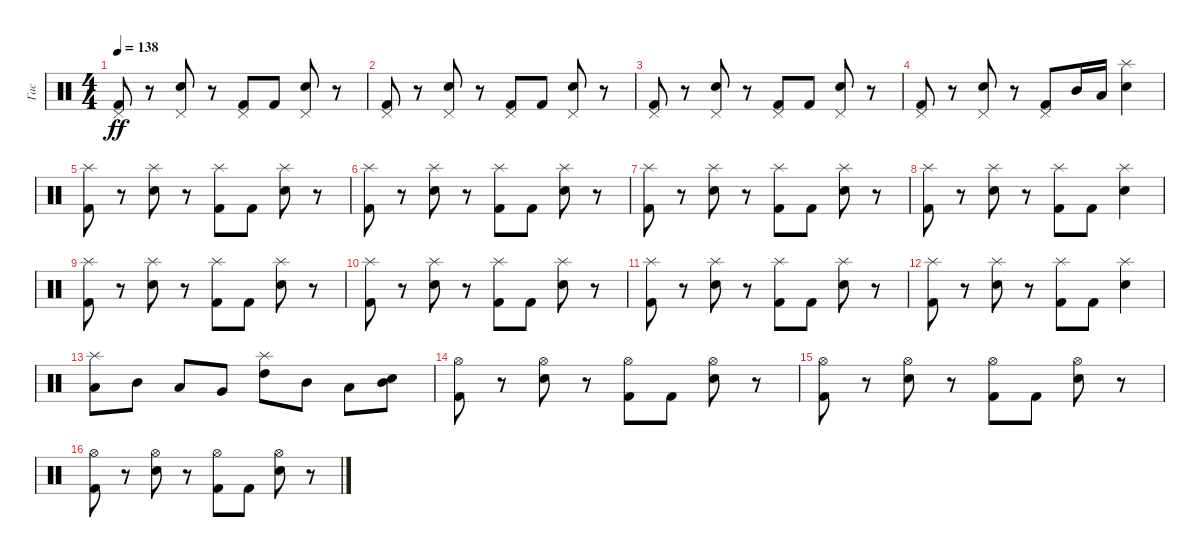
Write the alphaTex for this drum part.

\track ("Гас" "Гас") {instrument percussion}
\staff {score}
\articulation defaults
\ts (4 4)
\tempo 138
\clef neutral
\ks c
("Pedal Hi-Hat (hit)" "Kick (hit) 2").8{dy ff} r.8 ("Pedal Hi-Hat (hit)" "Electric Snare (hit)").8 r.8 ("Pedal Hi-Hat (hit)" "Kick (hit) 2").8 "Kick (hit) 2".8 ("Pedal Hi-Hat (hit)" "Electric Snare (hit)").8 r.8 |
("Pedal Hi-Hat (hit)" "Kick (hit) 2").8 r.8 ("Pedal Hi-Hat (hit)" "Electric Snare (hit)").8 r.8 ("Pedal Hi-Hat (hit)" "Kick (hit) 2").8 "Kick (hit) 2".8 ("Pedal Hi-Hat (hit)" "Electric Snare (hit)").8 r.8 |
("Pedal Hi-Hat (hit)" "Kick (hit) 2").8 r.8 ("Pedal Hi-Hat (hit)" "Electric Snare (hit)").8 r.8 ("Pedal Hi-Hat (hit)" "Kick (hit) 2").8 "Kick (hit) 2".8 ("Pedal Hi-Hat (hit)" "Electric Snare (hit)").8 r.8 |
("Pedal Hi-Hat (hit)" "Kick (hit) 2").8 r.8 ("Pedal Hi-Hat (hit)" "Electric Snare (hit)").8 r.8 ("Pedal Hi-Hat (hit)" "Kick (hit) 2").8 "Mid Tom (hit)".16 "Low Tom (hit)".16 ("Splash (hit)" "Electric Snare (hit)").4 |
("Splash (hit)" "Kick (hit) 2").8 r.8 ("Splash (hit)" "Electric Snare (hit)").8 r.8 ("Splash (hit)" "Kick (hit) 2").8 "Kick (hit) 2".8 ("Splash (hit)" "Electric Snare (hit)").8 r.8 |
("Splash (hit)" "Kick (hit) 2").8 r.8 ("Splash (hit)" "Electric Snare (hit)").8 r.8 ("Splash (hit)" "Kick (hit) 2").8 "Kick (hit) 2".8 ("Splash (hit)" "Electric Snare (hit)").8 r.8 |
("Splash (hit)" "Kick (hit) 2").8 r.8 ("Splash (hit)" "Electric Snare (hit)").8 r.8 ("Splash (hit)" "Kick (hit) 2").8 "Kick (hit) 2".8 ("Splash (hit)" "Electric Snare (hit)").8 r.8 |
("Splash (hit)" "Kick (hit) 2").8 r.8 ("Splash (hit)" "Electric Snare (hit)").8 r.8 ("Splash (hit)" "Kick (hit) 2").8 "Kick (hit) 2".8 ("Splash (hit)" "Electric Snare (hit)").4 |
("Splash (hit)" "Kick (hit) 2").8 r.8 ("Splash (hit)" "Electric Snare (hit)").8 r.8 ("Splash (hit)" "Kick (hit) 2").8 "Kick (hit) 2".8 ("Splash (hit)" "Electric Snare (hit)").8 r.8 |
("Splash (hit)" "Kick (hit) 2").8 r.8 ("Splash (hit)" "Electric Snare (hit)").8 r.8 ("Splash (hit)" "Kick (hit) 2").8 "Kick (hit) 2".8 ("Splash (hit)" "Electric Snare (hit)").8 r.8 |
("Splash (hit)" "Kick (hit) 2").8 r.8 ("Splash (hit)" "Electric Snare (hit)").8 r.8 ("Splash (hit)" "Kick (hit) 2").8 "Kick (hit) 2".8 ("Splash (hit)" "Electric Snare (hit)").8 r.8 |
("Splash (hit)" "Kick (hit) 2").8 r.8 ("Splash (hit)" "Electric Snare (hit)").8 r.8 ("Splash (hit)" "Kick (hit) 2").8 "Kick (hit) 2".8 ("Splash (hit)" "Electric Snare (hit)").4 |
("Splash (hit)" "Low Floor Tom (hit)").8 "Mid Tom (hit)".8 "Low Tom (hit)".8 "Very Low Tom (hit)".8 ("High Tom (hit)" "Splash (hit)").8 "Mid Tom (hit)".8 "Low Tom (hit)".8 ("Mid Tom (hit)" "Electric Snare (hit)").8 |
("Hi-Hat (open)" "Kick (hit) 2").8 r.8 ("Hi-Hat (open)" "Electric Snare (hit)").8 r.8 ("Hi-Hat (open)" "Kick (hit) 2").8 "Kick (hit) 2".8 ("Hi-Hat (open)" "Electric Snare (hit)").8 r.8 |
("Hi-Hat (open)" "Kick (hit) 2").8 r.8 ("Hi-Hat (open)" "Electric Snare (hit)").8 r.8 ("Hi-Hat (open)" "Kick (hit) 2").8 "Kick (hit) 2".8 ("Hi-Hat (open)" "Electric Snare (hit)").8 r.8 |
("Hi-Hat (open)" "Kick (hit) 2").8 r.8 ("Hi-Hat (open)" "Electric Snare (hit)").8 r.8 ("Hi-Hat (open)" "Kick (hit) 2").8 "Kick (hit) 2".8 ("Hi-Hat (open)" "Electric Snare (hit)").8 r.8
